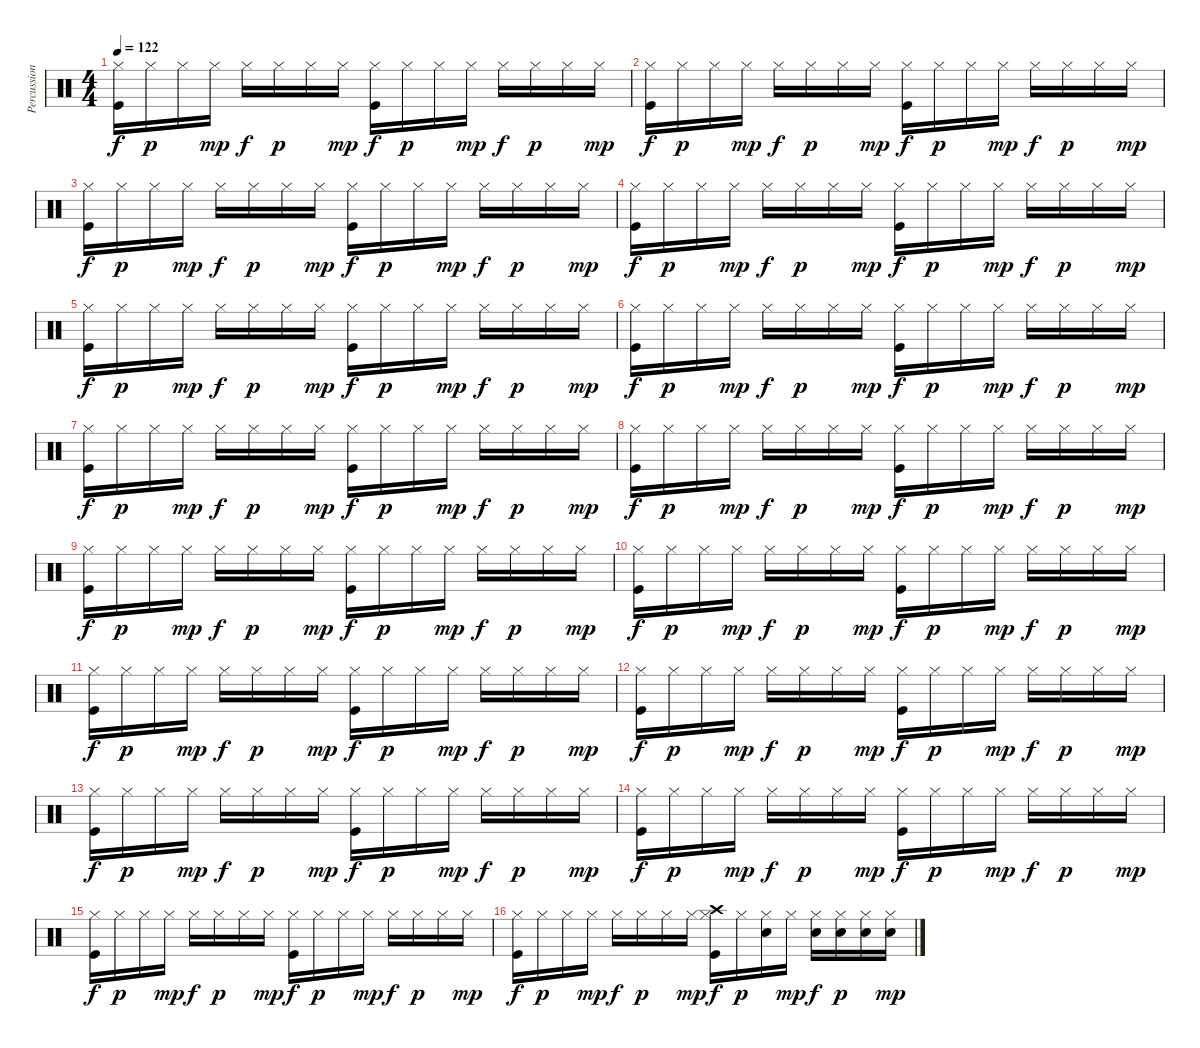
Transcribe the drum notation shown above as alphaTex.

\track ("Percussioni" "Percussion") {instrument percussion}
\staff {score}
\articulation defaults
\ts (4 4)
\tempo 122
\clef neutral
\ks c
("Hi-Hat (closed)" "Kick (hit)").16{dy f} "Hi-Hat (closed)".16{dy p} "Hi-Hat (closed)".16 "Hi-Hat (closed)".16{dy mp} "Hi-Hat (closed)".16{dy f} "Hi-Hat (closed)".16{dy p} "Hi-Hat (closed)".16 "Hi-Hat (closed)".16{dy mp} ("Hi-Hat (closed)" "Kick (hit)").16{dy f} "Hi-Hat (closed)".16{dy p} "Hi-Hat (closed)".16 "Hi-Hat (closed)".16{dy mp} "Hi-Hat (closed)".16{dy f} "Hi-Hat (closed)".16{dy p} "Hi-Hat (closed)".16 "Hi-Hat (closed)".16{dy mp} |
("Hi-Hat (closed)" "Kick (hit)").16{dy f} "Hi-Hat (closed)".16{dy p} "Hi-Hat (closed)".16 "Hi-Hat (closed)".16{dy mp} "Hi-Hat (closed)".16{dy f} "Hi-Hat (closed)".16{dy p} "Hi-Hat (closed)".16 "Hi-Hat (closed)".16{dy mp} ("Hi-Hat (closed)" "Kick (hit)").16{dy f} "Hi-Hat (closed)".16{dy p} "Hi-Hat (closed)".16 "Hi-Hat (closed)".16{dy mp} "Hi-Hat (closed)".16{dy f} "Hi-Hat (closed)".16{dy p} "Hi-Hat (closed)".16 "Hi-Hat (closed)".16{dy mp} |
("Hi-Hat (closed)" "Kick (hit)").16{dy f} "Hi-Hat (closed)".16{dy p} "Hi-Hat (closed)".16 "Hi-Hat (closed)".16{dy mp} "Hi-Hat (closed)".16{dy f} "Hi-Hat (closed)".16{dy p} "Hi-Hat (closed)".16 "Hi-Hat (closed)".16{dy mp} ("Hi-Hat (closed)" "Kick (hit)").16{dy f} "Hi-Hat (closed)".16{dy p} "Hi-Hat (closed)".16 "Hi-Hat (closed)".16{dy mp} "Hi-Hat (closed)".16{dy f} "Hi-Hat (closed)".16{dy p} "Hi-Hat (closed)".16 "Hi-Hat (closed)".16{dy mp} |
("Hi-Hat (closed)" "Kick (hit)").16{dy f} "Hi-Hat (closed)".16{dy p} "Hi-Hat (closed)".16 "Hi-Hat (closed)".16{dy mp} "Hi-Hat (closed)".16{dy f} "Hi-Hat (closed)".16{dy p} "Hi-Hat (closed)".16 "Hi-Hat (closed)".16{dy mp} ("Hi-Hat (closed)" "Kick (hit)").16{dy f} "Hi-Hat (closed)".16{dy p} "Hi-Hat (closed)".16 "Hi-Hat (closed)".16{dy mp} "Hi-Hat (closed)".16{dy f} "Hi-Hat (closed)".16{dy p} "Hi-Hat (closed)".16 "Hi-Hat (closed)".16{dy mp} |
("Hi-Hat (closed)" "Kick (hit)").16{dy f} "Hi-Hat (closed)".16{dy p} "Hi-Hat (closed)".16 "Hi-Hat (closed)".16{dy mp} "Hi-Hat (closed)".16{dy f} "Hi-Hat (closed)".16{dy p} "Hi-Hat (closed)".16 "Hi-Hat (closed)".16{dy mp} ("Hi-Hat (closed)" "Kick (hit)").16{dy f} "Hi-Hat (closed)".16{dy p} "Hi-Hat (closed)".16 "Hi-Hat (closed)".16{dy mp} "Hi-Hat (closed)".16{dy f} "Hi-Hat (closed)".16{dy p} "Hi-Hat (closed)".16 "Hi-Hat (closed)".16{dy mp} |
("Hi-Hat (closed)" "Kick (hit)").16{dy f} "Hi-Hat (closed)".16{dy p} "Hi-Hat (closed)".16 "Hi-Hat (closed)".16{dy mp} "Hi-Hat (closed)".16{dy f} "Hi-Hat (closed)".16{dy p} "Hi-Hat (closed)".16 "Hi-Hat (closed)".16{dy mp} ("Hi-Hat (closed)" "Kick (hit)").16{dy f} "Hi-Hat (closed)".16{dy p} "Hi-Hat (closed)".16 "Hi-Hat (closed)".16{dy mp} "Hi-Hat (closed)".16{dy f} "Hi-Hat (closed)".16{dy p} "Hi-Hat (closed)".16 "Hi-Hat (closed)".16{dy mp} |
("Hi-Hat (closed)" "Kick (hit)").16{dy f} "Hi-Hat (closed)".16{dy p} "Hi-Hat (closed)".16 "Hi-Hat (closed)".16{dy mp} "Hi-Hat (closed)".16{dy f} "Hi-Hat (closed)".16{dy p} "Hi-Hat (closed)".16 "Hi-Hat (closed)".16{dy mp} ("Hi-Hat (closed)" "Kick (hit)").16{dy f} "Hi-Hat (closed)".16{dy p} "Hi-Hat (closed)".16 "Hi-Hat (closed)".16{dy mp} "Hi-Hat (closed)".16{dy f} "Hi-Hat (closed)".16{dy p} "Hi-Hat (closed)".16 "Hi-Hat (closed)".16{dy mp} |
("Hi-Hat (closed)" "Kick (hit)").16{dy f} "Hi-Hat (closed)".16{dy p} "Hi-Hat (closed)".16 "Hi-Hat (closed)".16{dy mp} "Hi-Hat (closed)".16{dy f} "Hi-Hat (closed)".16{dy p} "Hi-Hat (closed)".16 "Hi-Hat (closed)".16{dy mp} ("Hi-Hat (closed)" "Kick (hit)").16{dy f} "Hi-Hat (closed)".16{dy p} "Hi-Hat (closed)".16 "Hi-Hat (closed)".16{dy mp} "Hi-Hat (closed)".16{dy f} "Hi-Hat (closed)".16{dy p} "Hi-Hat (closed)".16 "Hi-Hat (closed)".16{dy mp} |
("Hi-Hat (closed)" "Kick (hit)").16{dy f} "Hi-Hat (closed)".16{dy p} "Hi-Hat (closed)".16 "Hi-Hat (closed)".16{dy mp} "Hi-Hat (closed)".16{dy f} "Hi-Hat (closed)".16{dy p} "Hi-Hat (closed)".16 "Hi-Hat (closed)".16{dy mp} ("Hi-Hat (closed)" "Kick (hit)").16{dy f} "Hi-Hat (closed)".16{dy p} "Hi-Hat (closed)".16 "Hi-Hat (closed)".16{dy mp} "Hi-Hat (closed)".16{dy f} "Hi-Hat (closed)".16{dy p} "Hi-Hat (closed)".16 "Hi-Hat (closed)".16{dy mp} |
("Hi-Hat (closed)" "Kick (hit)").16{dy f} "Hi-Hat (closed)".16{dy p} "Hi-Hat (closed)".16 "Hi-Hat (closed)".16{dy mp} "Hi-Hat (closed)".16{dy f} "Hi-Hat (closed)".16{dy p} "Hi-Hat (closed)".16 "Hi-Hat (closed)".16{dy mp} ("Hi-Hat (closed)" "Kick (hit)").16{dy f} "Hi-Hat (closed)".16{dy p} "Hi-Hat (closed)".16 "Hi-Hat (closed)".16{dy mp} "Hi-Hat (closed)".16{dy f} "Hi-Hat (closed)".16{dy p} "Hi-Hat (closed)".16 "Hi-Hat (closed)".16{dy mp} |
("Hi-Hat (closed)" "Kick (hit)").16{dy f} "Hi-Hat (closed)".16{dy p} "Hi-Hat (closed)".16 "Hi-Hat (closed)".16{dy mp} "Hi-Hat (closed)".16{dy f} "Hi-Hat (closed)".16{dy p} "Hi-Hat (closed)".16 "Hi-Hat (closed)".16{dy mp} ("Hi-Hat (closed)" "Kick (hit)").16{dy f} "Hi-Hat (closed)".16{dy p} "Hi-Hat (closed)".16 "Hi-Hat (closed)".16{dy mp} "Hi-Hat (closed)".16{dy f} "Hi-Hat (closed)".16{dy p} "Hi-Hat (closed)".16 "Hi-Hat (closed)".16{dy mp} |
("Hi-Hat (closed)" "Kick (hit)").16{dy f} "Hi-Hat (closed)".16{dy p} "Hi-Hat (closed)".16 "Hi-Hat (closed)".16{dy mp} "Hi-Hat (closed)".16{dy f} "Hi-Hat (closed)".16{dy p} "Hi-Hat (closed)".16 "Hi-Hat (closed)".16{dy mp} ("Hi-Hat (closed)" "Kick (hit)").16{dy f} "Hi-Hat (closed)".16{dy p} "Hi-Hat (closed)".16 "Hi-Hat (closed)".16{dy mp} "Hi-Hat (closed)".16{dy f} "Hi-Hat (closed)".16{dy p} "Hi-Hat (closed)".16 "Hi-Hat (closed)".16{dy mp} |
("Hi-Hat (closed)" "Kick (hit)").16{dy f} "Hi-Hat (closed)".16{dy p} "Hi-Hat (closed)".16 "Hi-Hat (closed)".16{dy mp} "Hi-Hat (closed)".16{dy f} "Hi-Hat (closed)".16{dy p} "Hi-Hat (closed)".16 "Hi-Hat (closed)".16{dy mp} ("Hi-Hat (closed)" "Kick (hit)").16{dy f} "Hi-Hat (closed)".16{dy p} "Hi-Hat (closed)".16 "Hi-Hat (closed)".16{dy mp} "Hi-Hat (closed)".16{dy f} "Hi-Hat (closed)".16{dy p} "Hi-Hat (closed)".16 "Hi-Hat (closed)".16{dy mp} |
("Hi-Hat (closed)" "Kick (hit)").16{dy f} "Hi-Hat (closed)".16{dy p} "Hi-Hat (closed)".16 "Hi-Hat (closed)".16{dy mp} "Hi-Hat (closed)".16{dy f} "Hi-Hat (closed)".16{dy p} "Hi-Hat (closed)".16 "Hi-Hat (closed)".16{dy mp} ("Hi-Hat (closed)" "Kick (hit)").16{dy f} "Hi-Hat (closed)".16{dy p} "Hi-Hat (closed)".16 "Hi-Hat (closed)".16{dy mp} "Hi-Hat (closed)".16{dy f} "Hi-Hat (closed)".16{dy p} "Hi-Hat (closed)".16 "Hi-Hat (closed)".16{dy mp} |
("Hi-Hat (closed)" "Kick (hit)").16{dy f} "Hi-Hat (closed)".16{dy p} "Hi-Hat (closed)".16 "Hi-Hat (closed)".16{dy mp} "Hi-Hat (closed)".16{dy f} "Hi-Hat (closed)".16{dy p} "Hi-Hat (closed)".16 "Hi-Hat (closed)".16{dy mp} ("Hi-Hat (closed)" "Kick (hit)").16{dy f} "Hi-Hat (closed)".16{dy p} "Hi-Hat (closed)".16 "Hi-Hat (closed)".16{dy mp} "Hi-Hat (closed)".16{dy f} "Hi-Hat (closed)".16{dy p} "Hi-Hat (closed)".16 "Hi-Hat (closed)".16{dy mp} |
("Hi-Hat (closed)" "Kick (hit)").16{dy f} "Hi-Hat (closed)".16{dy p} "Hi-Hat (closed)".16 "Hi-Hat (closed)".16{dy mp} "Hi-Hat (closed)".16{dy f} "Hi-Hat (closed)".16{dy p} "Hi-Hat (closed)".16 "Hi-Hat (closed)".16{dy mp} ("Crash high (hit)" "Hi-Hat (closed)" "Kick (hit)").16{dy f} "Hi-Hat (closed)".16{dy p} ("Hi-Hat (closed)" "Snare (hit) 2").16 "Hi-Hat (closed)".16{dy mp} ("Hi-Hat (closed)" "Snare (hit) 2").16{dy f} ("Hi-Hat (closed)" "Snare (hit) 2").16{dy p} ("Hi-Hat (closed)" "Snare (hit) 2").16 ("Hi-Hat (closed)" "Snare (hit) 2").16{dy mp}
